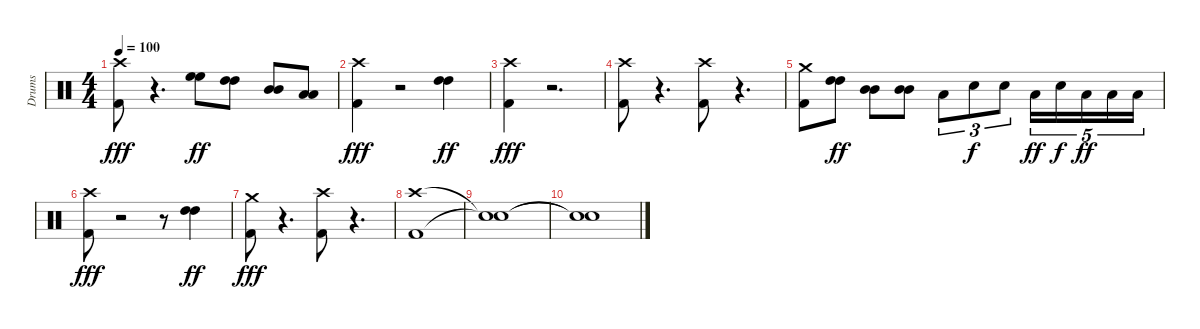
\track ("Drums" "Drums") {instrument percussion}
\staff {score}
\articulation defaults
\ts (4 4)
\tempo 100
\clef neutral
\ks c
("Crash high (hit)" "Kick (hit) 2").8{dy fff} r.4{d} ("High Floor Tom (hit)" "High Floor Tom (hit)").8{dy ff} ("High Tom (hit)" "High Tom (hit)").8 ("Mid Tom (hit)" "Mid Tom (hit)").8 ("Low Tom (hit)" "Low Tom (hit)").8 |
("Crash high (hit)" "Kick (hit) 2").4{dy fff} r.2 ("High Tom (hit)" "High Tom (hit)").4{dy ff} |
("Crash high (hit)" "Kick (hit) 2").4{dy fff} r.2{d} |
("Crash high (hit)" "Kick (hit) 2").8 r.4{d} ("Crash high (hit)" "Kick (hit) 2").8 r.4{d} |
("Crash medium (hit)" "Kick (hit) 2").8 ("High Tom (hit)" "High Tom (hit)").8{dy ff} ("Mid Tom (hit)" "Mid Tom (hit)").8 ("Mid Tom (hit)" "Mid Tom (hit)").8 "Low Tom (hit)".8{tu (3 2)} "Electric Snare (hit)".8{tu (3 2) dy f} "Electric Snare (hit)".8{tu (3 2)} "Low Tom (hit)".16{tu (5 4) dy ff} "Electric Snare (hit)".16{tu (5 4) dy f} "Low Tom (hit)".16{tu (5 4) dy ff} "Low Floor Tom (hit)".16{tu (5 4)} "Low Floor Tom (hit)".16{tu (5 4)} |
("Crash high (hit)" "Kick (hit) 2").8{dy fff} r.2 r.8 ("High Tom (hit)" "High Tom (hit)").4{dy ff} |
("Crash medium (hit)" "Kick (hit) 2").8{dy fff} r.4{d} ("Crash high (hit)" "Kick (hit) 2").8 r.4{d} |
("Crash high (hit)" "Kick (hit) 2").1 |
("Snare (hit)"{t} "Snare (hit)"{t}).1 |
("Snare (hit)"{t} "Snare (hit)"{t}).1
